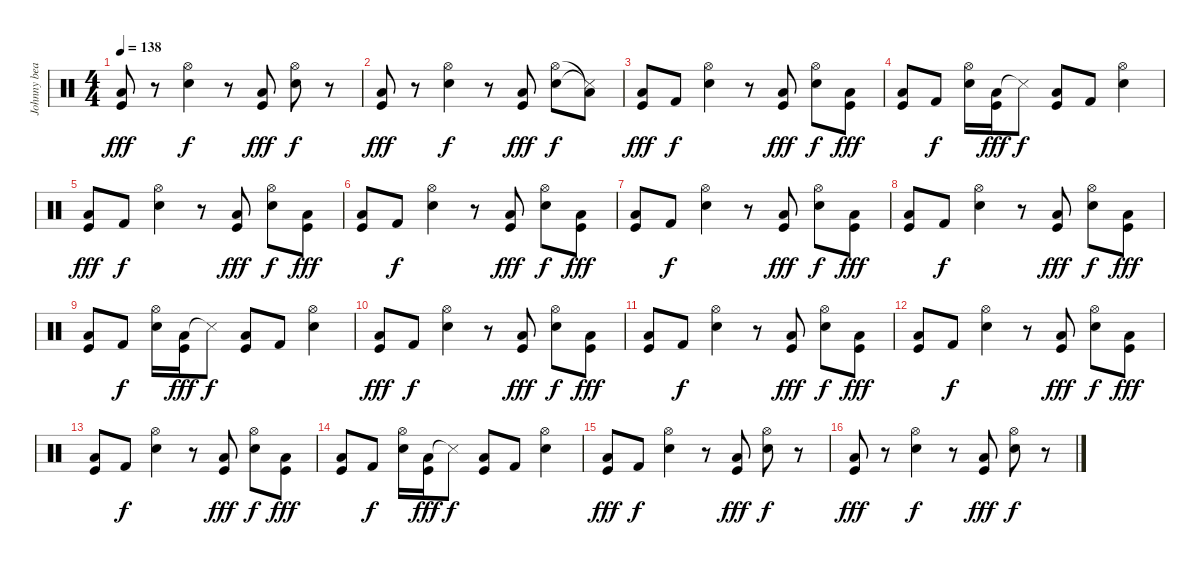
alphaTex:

\track ("Johnny beat" "Johnny bea") {instrument percussion}
\staff {score}
\articulation defaults
\ts (4 4)
\tempo 138
\clef neutral
\ks c
("Low Tom (hit)" "Kick (hit)").8{dy fff} r.8 ("Electric Snare (hit)" "Hi-Hat (open)").4{dy f} r.8 ("Low Tom (hit)" "Kick (hit)").8{dy fff} ("Electric Snare (hit)" "Hi-Hat (open)").8{dy f} r.8 |
("Low Tom (hit)" "Kick (hit)").8{dy fff} r.8 ("Electric Snare (hit)" "Hi-Hat (open)").4{dy f} r.8 ("Low Tom (hit)" "Kick (hit)").8{dy fff} ("Electric Snare (hit)" "Hi-Hat (open)").8{dy f} ("Snare (side stick) 3"{t} "Low Tom (hit)"{t}).8 |
("Low Tom (hit)" "Kick (hit)").8{dy fff} "Kick (hit) 2".8{dy f} ("Electric Snare (hit)" "Hi-Hat (open)").4 r.8 ("Low Tom (hit)" "Kick (hit)").8{dy fff} ("Electric Snare (hit)" "Hi-Hat (open)").8{dy f} ("Low Tom (hit)" "Kick (hit)").8{dy fff} |
("Low Tom (hit)" "Kick (hit)").8 "Kick (hit) 2".8{dy f} ("Electric Snare (hit)" "Hi-Hat (open)").16 ("Low Tom (hit)" "Kick (hit)").16{dy fff} "Snare (side stick) 3"{t}.8{dy f} ("Kick (hit)" "Low Tom (hit)").8 "Kick (hit) 2".8 ("Electric Snare (hit)" "Hi-Hat (open)").4 |
("Low Tom (hit)" "Kick (hit)").8{dy fff} "Kick (hit) 2".8{dy f} ("Electric Snare (hit)" "Hi-Hat (open)").4 r.8 ("Low Tom (hit)" "Kick (hit)").8{dy fff} ("Electric Snare (hit)" "Hi-Hat (open)").8{dy f} ("Low Tom (hit)" "Kick (hit)").8{dy fff} |
("Low Tom (hit)" "Kick (hit)").8 "Kick (hit) 2".8{dy f} ("Electric Snare (hit)" "Hi-Hat (open)").4 r.8 ("Low Tom (hit)" "Kick (hit)").8{dy fff} ("Electric Snare (hit)" "Hi-Hat (open)").8{dy f} ("Low Tom (hit)" "Kick (hit)").8{dy fff} |
("Low Tom (hit)" "Kick (hit)").8 "Kick (hit) 2".8{dy f} ("Electric Snare (hit)" "Hi-Hat (open)").4 r.8 ("Low Tom (hit)" "Kick (hit)").8{dy fff} ("Electric Snare (hit)" "Hi-Hat (open)").8{dy f} ("Low Tom (hit)" "Kick (hit)").8{dy fff} |
("Low Tom (hit)" "Kick (hit)").8 "Kick (hit) 2".8{dy f} ("Electric Snare (hit)" "Hi-Hat (open)").4 r.8 ("Low Tom (hit)" "Kick (hit)").8{dy fff} ("Electric Snare (hit)" "Hi-Hat (open)").8{dy f} ("Low Tom (hit)" "Kick (hit)").8{dy fff} |
("Low Tom (hit)" "Kick (hit)").8 "Kick (hit) 2".8{dy f} ("Electric Snare (hit)" "Hi-Hat (open)").16 ("Low Tom (hit)" "Kick (hit)").16{dy fff} "Snare (side stick) 3"{t}.8{dy f} ("Kick (hit)" "Low Tom (hit)").8 "Kick (hit) 2".8 ("Electric Snare (hit)" "Hi-Hat (open)").4 |
("Low Tom (hit)" "Kick (hit)").8{dy fff} "Kick (hit) 2".8{dy f} ("Electric Snare (hit)" "Hi-Hat (open)").4 r.8 ("Low Tom (hit)" "Kick (hit)").8{dy fff} ("Electric Snare (hit)" "Hi-Hat (open)").8{dy f} ("Low Tom (hit)" "Kick (hit)").8{dy fff} |
("Low Tom (hit)" "Kick (hit)").8 "Kick (hit) 2".8{dy f} ("Electric Snare (hit)" "Hi-Hat (open)").4 r.8 ("Low Tom (hit)" "Kick (hit)").8{dy fff} ("Electric Snare (hit)" "Hi-Hat (open)").8{dy f} ("Low Tom (hit)" "Kick (hit)").8{dy fff} |
("Low Tom (hit)" "Kick (hit)").8 "Kick (hit) 2".8{dy f} ("Electric Snare (hit)" "Hi-Hat (open)").4 r.8 ("Low Tom (hit)" "Kick (hit)").8{dy fff} ("Electric Snare (hit)" "Hi-Hat (open)").8{dy f} ("Low Tom (hit)" "Kick (hit)").8{dy fff} |
("Low Tom (hit)" "Kick (hit)").8 "Kick (hit) 2".8{dy f} ("Electric Snare (hit)" "Hi-Hat (open)").4 r.8 ("Low Tom (hit)" "Kick (hit)").8{dy fff} ("Electric Snare (hit)" "Hi-Hat (open)").8{dy f} ("Low Tom (hit)" "Kick (hit)").8{dy fff} |
("Low Tom (hit)" "Kick (hit)").8 "Kick (hit) 2".8{dy f} ("Electric Snare (hit)" "Hi-Hat (open)").16 ("Low Tom (hit)" "Kick (hit)").16{dy fff} "Snare (side stick) 3"{t}.8{dy f} ("Kick (hit)" "Low Tom (hit)").8 "Kick (hit) 2".8 ("Electric Snare (hit)" "Hi-Hat (open)").4 |
("Low Tom (hit)" "Kick (hit)").8{dy fff} "Kick (hit) 2".8{dy f} ("Electric Snare (hit)" "Hi-Hat (open)").4 r.8 ("Low Tom (hit)" "Kick (hit)").8{dy fff} ("Electric Snare (hit)" "Hi-Hat (open)").8{dy f} r.8 |
("Low Tom (hit)" "Kick (hit)").8{dy fff} r.8 ("Electric Snare (hit)" "Hi-Hat (open)").4{dy f} r.8 ("Low Tom (hit)" "Kick (hit)").8{dy fff} ("Electric Snare (hit)" "Hi-Hat (open)").8{dy f} r.8
